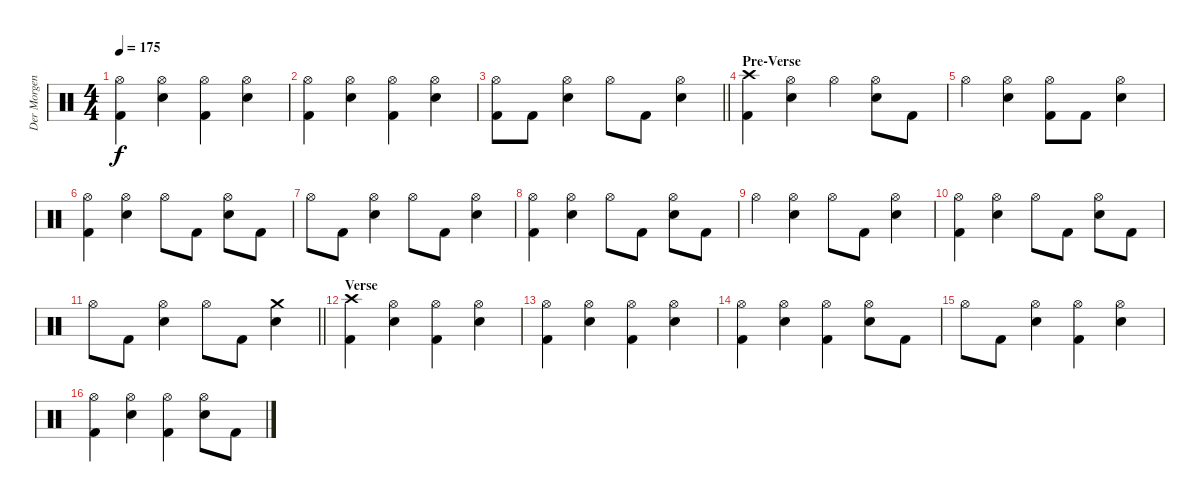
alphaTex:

\track ("Der Morgenstern" "Der Morgen") {instrument percussion}
\staff {score}
\articulation defaults
\ts (4 4)
\tempo 175
\clef neutral
\ks c
("Hi-Hat (open)" "Kick (hit) 2").4{dy f} ("Hi-Hat (open)" "Electric Snare (hit)").4 ("Hi-Hat (open)" "Kick (hit) 2").4 ("Hi-Hat (open)" "Electric Snare (hit)").4 |
("Hi-Hat (open)" "Kick (hit) 2").4 ("Hi-Hat (open)" "Electric Snare (hit)").4 ("Hi-Hat (open)" "Kick (hit) 2").4 ("Hi-Hat (open)" "Electric Snare (hit)").4 |
\barLineRight lightlight
("Hi-Hat (open)" "Kick (hit) 2").8 "Kick (hit) 2".8 ("Hi-Hat (open)" "Electric Snare (hit)").4 "Hi-Hat (open)".8 "Kick (hit) 2".8 ("Hi-Hat (open)" "Electric Snare (hit)").4 |
\section ("" "Pre-Verse")
("Crash high (hit)" "Kick (hit) 2").4 ("Hi-Hat (open)" "Electric Snare (hit)").4 "Hi-Hat (open)".4 ("Hi-Hat (open)" "Electric Snare (hit)").8 "Kick (hit) 2".8 |
"Hi-Hat (open)".4 ("Hi-Hat (open)" "Electric Snare (hit)").4 ("Hi-Hat (open)" "Kick (hit) 2").8 "Kick (hit) 2".8 ("Hi-Hat (open)" "Electric Snare (hit)").4 |
("Hi-Hat (open)" "Kick (hit) 2").4 ("Hi-Hat (open)" "Electric Snare (hit)").4 "Hi-Hat (open)".8 "Kick (hit) 2".8 ("Hi-Hat (open)" "Electric Snare (hit)").8 "Kick (hit) 2".8 |
"Hi-Hat (open)".8 "Kick (hit) 2".8 ("Hi-Hat (open)" "Electric Snare (hit)").4 "Hi-Hat (open)".8 "Kick (hit) 2".8 ("Hi-Hat (open)" "Electric Snare (hit)").4 |
("Hi-Hat (open)" "Kick (hit) 2").4 ("Hi-Hat (open)" "Electric Snare (hit)").4 "Hi-Hat (open)".8 "Kick (hit) 2".8 ("Hi-Hat (open)" "Electric Snare (hit)").8 "Kick (hit) 2".8 |
"Hi-Hat (open)".4 ("Hi-Hat (open)" "Electric Snare (hit)").4 "Hi-Hat (open)".8 "Kick (hit) 2".8 ("Hi-Hat (open)" "Electric Snare (hit)").4 |
("Hi-Hat (open)" "Kick (hit) 2").4 ("Hi-Hat (open)" "Electric Snare (hit)").4 "Hi-Hat (open)".8 "Kick (hit) 2".8 ("Hi-Hat (open)" "Electric Snare (hit)").8 "Kick (hit) 2".8 |
\barLineRight lightlight "Hi-Hat (open)".8 "Kick (hit) 2".8
("Hi-Hat (open)" "Electric Snare (hit)").4 "Hi-Hat (open)".8 "Kick (hit) 2".8 ("Crash medium (hit)" "Electric Snare (hit)").4 |
\section ("" "Verse")
("Crash high (hit)" "Kick (hit) 2").4 ("Hi-Hat (open)" "Electric Snare (hit)").4 ("Hi-Hat (open)" "Kick (hit) 2").4 ("Hi-Hat (open)" "Electric Snare (hit)").4 |
("Hi-Hat (open)" "Kick (hit) 2").4 ("Hi-Hat (open)" "Electric Snare (hit)").4 ("Hi-Hat (open)" "Kick (hit) 2").4 ("Hi-Hat (open)" "Electric Snare (hit)").4 |
("Hi-Hat (open)" "Kick (hit) 2").4 ("Hi-Hat (open)" "Electric Snare (hit)").4 ("Hi-Hat (open)" "Kick (hit) 2").4 ("Hi-Hat (open)" "Electric Snare (hit)").8 "Kick (hit) 2".8 |
"Hi-Hat (open)".8 "Kick (hit) 2".8 ("Hi-Hat (open)" "Electric Snare (hit)").4 ("Hi-Hat (open)" "Kick (hit) 2").4 ("Hi-Hat (open)" "Electric Snare (hit)").4 |
("Hi-Hat (open)" "Kick (hit) 2").4 ("Hi-Hat (open)" "Electric Snare (hit)").4 ("Hi-Hat (open)" "Kick (hit) 2").4 ("Hi-Hat (open)" "Electric Snare (hit)").8 "Kick (hit) 2".8
